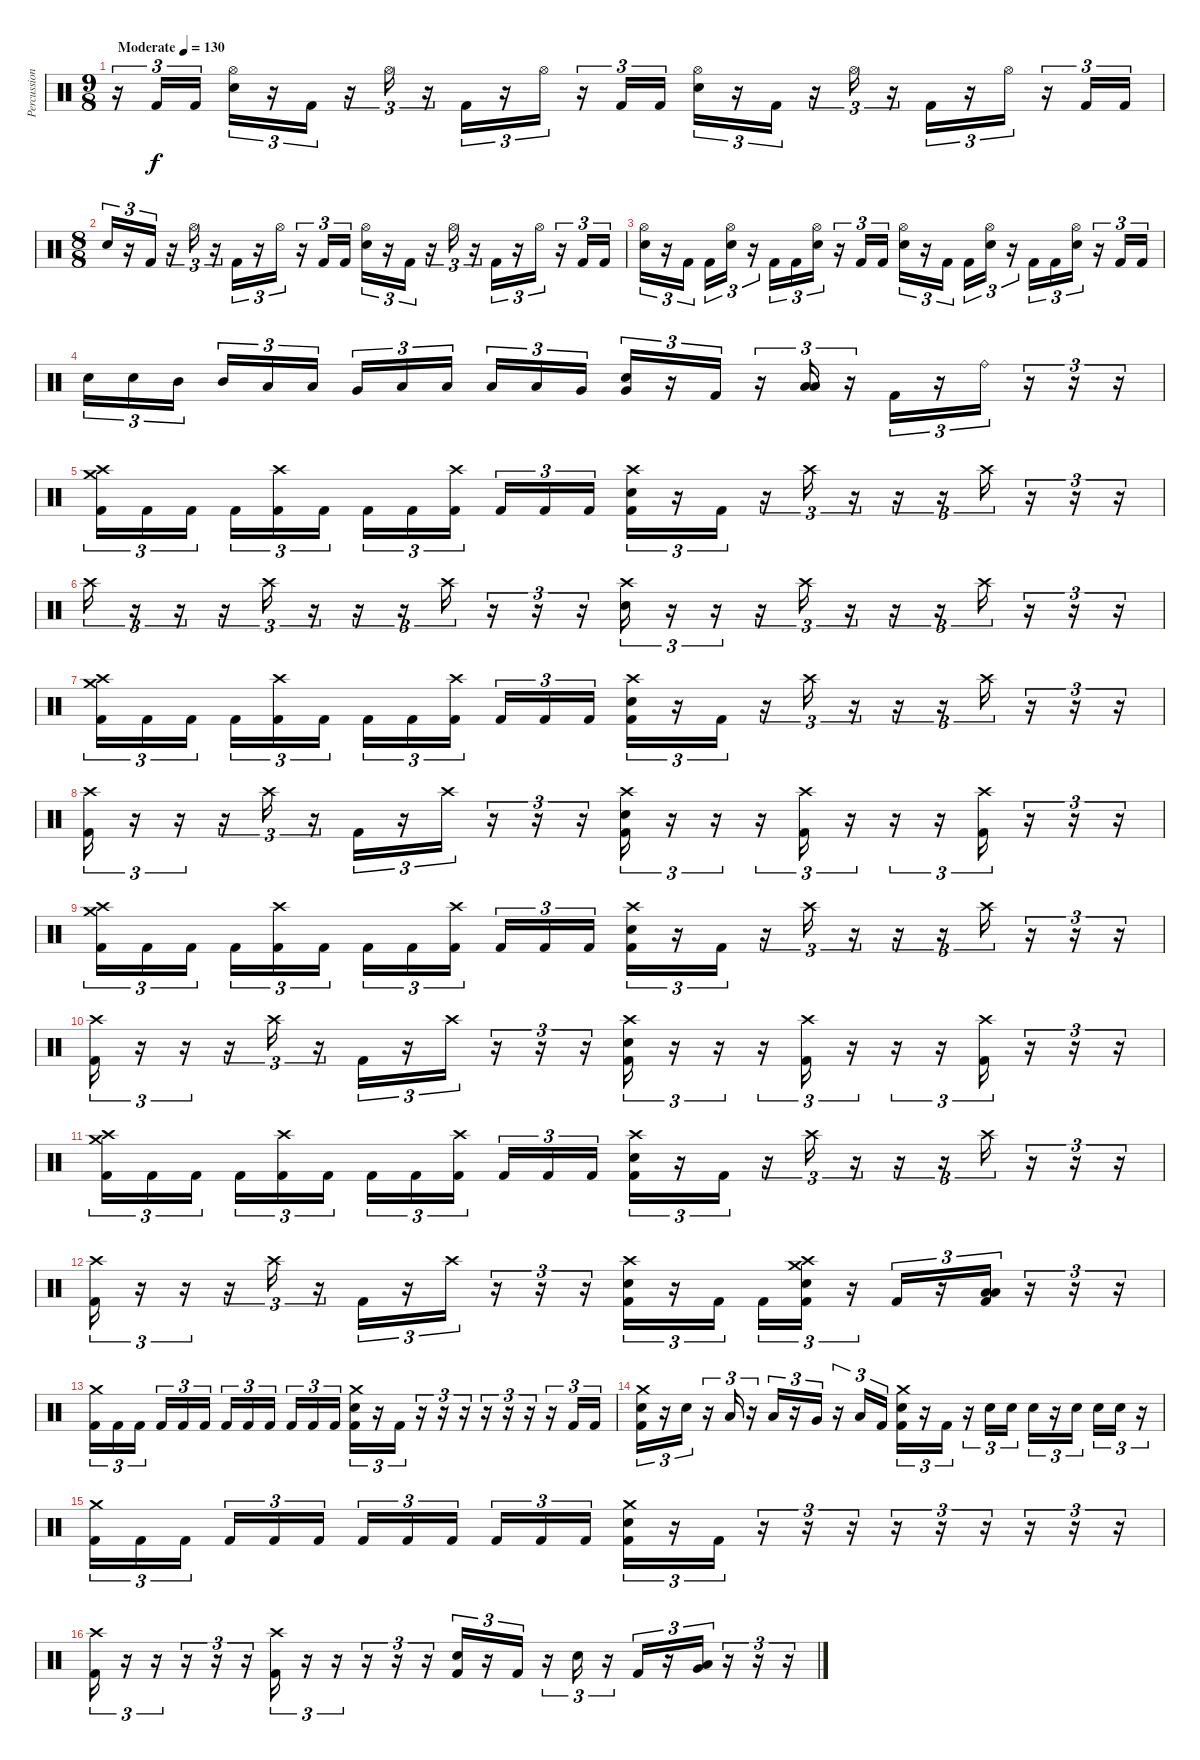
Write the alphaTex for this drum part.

\track ("Percussion" "Percussion") {instrument percussion}
\staff {score}
\articulation defaults
\ts (9 8)
\tempo (130 "Moderate")
\clef neutral
\ks c
r.16{tu (3 2) dy f} "Kick (hit) 2".16{tu (3 2)} "Kick (hit) 2".16{tu (3 2) beam splitsecondary} ("Hi-Hat (open)" "Snare (hit) 2").16{tu (3 2)} r.16{tu (3 2)} "Kick (hit) 2".16{tu (3 2)} r.16{tu (3 2)} "Hi-Hat (open)".16{tu (3 2)} r.16{tu (3 2)} "Kick (hit) 2".16{tu (3 2)} r.16{tu (3 2)} "Hi-Hat (open)".16{tu (3 2)} r.16{tu (3 2)} "Kick (hit) 2".16{tu (3 2)} "Kick (hit) 2".16{tu (3 2) beam splitsecondary} ("Hi-Hat (open)" "Snare (hit) 2").16{tu (3 2)} r.16{tu (3 2)} "Kick (hit) 2".16{tu (3 2)} r.16{tu (3 2)} "Hi-Hat (open)".16{tu (3 2)} r.16{tu (3 2)} "Kick (hit) 2".16{tu (3 2)} r.16{tu (3 2)} "Hi-Hat (open)".16{tu (3 2)} r.16{tu (3 2)} "Kick (hit) 2".16{tu (3 2)} "Kick (hit) 2".16{tu (3 2)} |
\ts (8 8)
"Snare (hit) 2".16{tu (3 2)} r.16{tu (3 2)} "Kick (hit) 2".16{tu (3 2)} r.16{tu (3 2)} "Hi-Hat (open)".16{tu (3 2)} r.16{tu (3 2)} "Kick (hit) 2".16{tu (3 2)} r.16{tu (3 2)} "Hi-Hat (open)".16{tu (3 2)} r.16{tu (3 2)} "Kick (hit) 2".16{tu (3 2)} "Kick (hit) 2".16{tu (3 2)} ("Hi-Hat (open)" "Snare (hit) 2").16{tu (3 2)} r.16{tu (3 2)} "Kick (hit) 2".16{tu (3 2)} r.16{tu (3 2)} "Hi-Hat (open)".16{tu (3 2)} r.16{tu (3 2)} "Kick (hit) 2".16{tu (3 2)} r.16{tu (3 2)} "Hi-Hat (open)".16{tu (3 2)} r.16{tu (3 2)} "Kick (hit) 2".16{tu (3 2)} "Kick (hit) 2".16{tu (3 2)} |
("Hi-Hat (open)" "Snare (hit) 2").16{tu (3 2)} r.16{tu (3 2)} "Kick (hit) 2".16{tu (3 2)} "Kick (hit) 2".16{tu (3 2)} ("Hi-Hat (open)" "Snare (hit) 2").16{tu (3 2)} r.16{tu (3 2)} "Kick (hit) 2".16{tu (3 2)} "Kick (hit) 2".16{tu (3 2)} ("Hi-Hat (open)" "Snare (hit) 2").16{tu (3 2)} r.16{tu (3 2)} "Kick (hit) 2".16{tu (3 2)} "Kick (hit) 2".16{tu (3 2)} ("Hi-Hat (open)" "Snare (hit) 2").16{tu (3 2)} r.16{tu (3 2)} "Kick (hit) 2".16{tu (3 2)} "Kick (hit) 2".16{tu (3 2)} ("Hi-Hat (open)" "Snare (hit) 2").16{tu (3 2)} r.16{tu (3 2)} "Kick (hit) 2".16{tu (3 2)} "Kick (hit) 2".16{tu (3 2)} ("Hi-Hat (open)" "Snare (hit) 2").16{tu (3 2)} r.16{tu (3 2)} "Kick (hit) 2".16{tu (3 2)} "Kick (hit) 2".16{tu (3 2)} |
"Snare (hit) 2".16{tu (3 2)} "Snare (hit) 2".16{tu (3 2)} "Mid Tom (hit)".16{tu (3 2)} "Mid Tom (hit)".16{tu (3 2)} "Low Tom (hit)".16{tu (3 2)} "Low Tom (hit)".16{tu (3 2)} "Very Low Tom (hit)".16{tu (3 2)} "Low Floor Tom (hit)".16{tu (3 2)} "Low Floor Tom (hit)".16{tu (3 2)} "Low Tom (hit)".16{tu (3 2)} "Low Tom (hit)".16{tu (3 2)} "Very Low Tom (hit)".16{tu (3 2)} ("Snare (hit) 2" "Very Low Tom (hit)").16{tu (3 2)} r.16{tu (3 2)} "Kick (hit) 2".16{tu (3 2)} r.16{tu (3 2)} ("Low Tom (hit)" "Low Floor Tom (hit)").16{tu (3 2)} r.16{tu (3 2)} "Kick (hit) 2".16{tu (3 2)} r.16{tu (3 2)} "Ride (bell)".16{tu (3 2)} r.16{tu (3 2)} r.16{tu (3 2)} r.16{tu (3 2)} |
("Crash high (hit)" "Crash medium (hit)" "Kick (hit) 2").16{tu (3 2)} "Kick (hit) 2".16{tu (3 2)} "Kick (hit) 2".16{tu (3 2)} "Kick (hit) 2".16{tu (3 2)} ("Crash high (hit)" "Kick (hit) 2").16{tu (3 2)} "Kick (hit) 2".16{tu (3 2)} "Kick (hit) 2".16{tu (3 2)} "Kick (hit) 2".16{tu (3 2)} ("Crash high (hit)" "Kick (hit) 2").16{tu (3 2)} "Kick (hit) 2".16{tu (3 2)} "Kick (hit) 2".16{tu (3 2)} "Kick (hit) 2".16{tu (3 2)} ("Crash high (hit)" "Snare (hit) 2" "Kick (hit) 2").16{tu (3 2)} r.16{tu (3 2)} "Kick (hit) 2".16{tu (3 2)} r.16{tu (3 2)} "Crash high (hit)".16{tu (3 2)} r.16{tu (3 2)} r.16{tu (3 2)} r.16{tu (3 2)} "Crash high (hit)".16{tu (3 2)} r.16{tu (3 2)} r.16{tu (3 2)} r.16{tu (3 2)} |
"Crash high (hit)".16{tu (3 2)} r.16{tu (3 2)} r.16{tu (3 2)} r.16{tu (3 2)} "Crash high (hit)".16{tu (3 2)} r.16{tu (3 2)} r.16{tu (3 2)} r.16{tu (3 2)} "Crash high (hit)".16{tu (3 2)} r.16{tu (3 2)} r.16{tu (3 2)} r.16{tu (3 2)} ("Crash high (hit)" "Snare (hit) 2").16{tu (3 2)} r.16{tu (3 2)} r.16{tu (3 2)} r.16{tu (3 2)} "Crash high (hit)".16{tu (3 2)} r.16{tu (3 2)} r.16{tu (3 2)} r.16{tu (3 2)} "Crash high (hit)".16{tu (3 2)} r.16{tu (3 2)} r.16{tu (3 2)} r.16{tu (3 2)} |
("Crash high (hit)" "Crash medium (hit)" "Kick (hit) 2").16{tu (3 2)} "Kick (hit) 2".16{tu (3 2)} "Kick (hit) 2".16{tu (3 2)} "Kick (hit) 2".16{tu (3 2)} ("Crash high (hit)" "Kick (hit) 2").16{tu (3 2)} "Kick (hit) 2".16{tu (3 2)} "Kick (hit) 2".16{tu (3 2)} "Kick (hit) 2".16{tu (3 2)} ("Crash high (hit)" "Kick (hit) 2").16{tu (3 2)} "Kick (hit) 2".16{tu (3 2)} "Kick (hit) 2".16{tu (3 2)} "Kick (hit) 2".16{tu (3 2)} ("Crash high (hit)" "Snare (hit) 2" "Kick (hit) 2").16{tu (3 2)} r.16{tu (3 2)} "Kick (hit) 2".16{tu (3 2)} r.16{tu (3 2)} "Crash high (hit)".16{tu (3 2)} r.16{tu (3 2)} r.16{tu (3 2)} r.16{tu (3 2)} "Crash high (hit)".16{tu (3 2)} r.16{tu (3 2)} r.16{tu (3 2)} r.16{tu (3 2)} |
("Crash high (hit)" "Kick (hit) 2").16{tu (3 2)} r.16{tu (3 2)} r.16{tu (3 2)} r.16{tu (3 2)} "Crash high (hit)".16{tu (3 2)} r.16{tu (3 2)} "Kick (hit) 2".16{tu (3 2)} r.16{tu (3 2)} "Crash high (hit)".16{tu (3 2)} r.16{tu (3 2)} r.16{tu (3 2)} r.16{tu (3 2)} ("Crash high (hit)" "Snare (hit) 2" "Kick (hit) 2").16{tu (3 2)} r.16{tu (3 2)} r.16{tu (3 2)} r.16{tu (3 2)} ("Crash high (hit)" "Kick (hit) 2").16{tu (3 2)} r.16{tu (3 2)} r.16{tu (3 2)} r.16{tu (3 2)} ("Crash high (hit)" "Kick (hit) 2").16{tu (3 2)} r.16{tu (3 2)} r.16{tu (3 2)} r.16{tu (3 2)} |
("Crash high (hit)" "Crash medium (hit)" "Kick (hit) 2").16{tu (3 2)} "Kick (hit) 2".16{tu (3 2)} "Kick (hit) 2".16{tu (3 2)} "Kick (hit) 2".16{tu (3 2)} ("Crash high (hit)" "Kick (hit) 2").16{tu (3 2)} "Kick (hit) 2".16{tu (3 2)} "Kick (hit) 2".16{tu (3 2)} "Kick (hit) 2".16{tu (3 2)} ("Crash high (hit)" "Kick (hit) 2").16{tu (3 2)} "Kick (hit) 2".16{tu (3 2)} "Kick (hit) 2".16{tu (3 2)} "Kick (hit) 2".16{tu (3 2)} ("Crash high (hit)" "Snare (hit) 2" "Kick (hit) 2").16{tu (3 2)} r.16{tu (3 2)} "Kick (hit) 2".16{tu (3 2)} r.16{tu (3 2)} "Crash high (hit)".16{tu (3 2)} r.16{tu (3 2)} r.16{tu (3 2)} r.16{tu (3 2)} "Crash high (hit)".16{tu (3 2)} r.16{tu (3 2)} r.16{tu (3 2)} r.16{tu (3 2)} |
("Crash high (hit)" "Kick (hit) 2").16{tu (3 2)} r.16{tu (3 2)} r.16{tu (3 2)} r.16{tu (3 2)} "Crash high (hit)".16{tu (3 2)} r.16{tu (3 2)} "Kick (hit) 2".16{tu (3 2)} r.16{tu (3 2)} "Crash high (hit)".16{tu (3 2)} r.16{tu (3 2)} r.16{tu (3 2)} r.16{tu (3 2)} ("Crash high (hit)" "Snare (hit) 2" "Kick (hit) 2").16{tu (3 2)} r.16{tu (3 2)} r.16{tu (3 2)} r.16{tu (3 2)} ("Crash high (hit)" "Kick (hit) 2").16{tu (3 2)} r.16{tu (3 2)} r.16{tu (3 2)} r.16{tu (3 2)} ("Crash high (hit)" "Kick (hit) 2").16{tu (3 2)} r.16{tu (3 2)} r.16{tu (3 2)} r.16{tu (3 2)} |
("Crash high (hit)" "Crash medium (hit)" "Kick (hit) 2").16{tu (3 2)} "Kick (hit) 2".16{tu (3 2)} "Kick (hit) 2".16{tu (3 2)} "Kick (hit) 2".16{tu (3 2)} ("Crash high (hit)" "Kick (hit) 2").16{tu (3 2)} "Kick (hit) 2".16{tu (3 2)} "Kick (hit) 2".16{tu (3 2)} "Kick (hit) 2".16{tu (3 2)} ("Crash high (hit)" "Kick (hit) 2").16{tu (3 2)} "Kick (hit) 2".16{tu (3 2)} "Kick (hit) 2".16{tu (3 2)} "Kick (hit) 2".16{tu (3 2)} ("Crash high (hit)" "Snare (hit) 2" "Kick (hit) 2").16{tu (3 2)} r.16{tu (3 2)} "Kick (hit) 2".16{tu (3 2)} r.16{tu (3 2)} "Crash high (hit)".16{tu (3 2)} r.16{tu (3 2)} r.16{tu (3 2)} r.16{tu (3 2)} "Crash high (hit)".16{tu (3 2)} r.16{tu (3 2)} r.16{tu (3 2)} r.16{tu (3 2)} |
("Crash high (hit)" "Kick (hit) 2").16{tu (3 2)} r.16{tu (3 2)} r.16{tu (3 2)} r.16{tu (3 2)} "Crash high (hit)".16{tu (3 2)} r.16{tu (3 2)} "Kick (hit) 2".16{tu (3 2)} r.16{tu (3 2)} "Crash high (hit)".16{tu (3 2)} r.16{tu (3 2)} r.16{tu (3 2)} r.16{tu (3 2)} ("Crash high (hit)" "Snare (hit) 2" "Kick (hit) 2").16{tu (3 2)} r.16{tu (3 2)} "Kick (hit) 2".16{tu (3 2)} "Kick (hit) 2".16{tu (3 2)} ("Crash high (hit)" "Crash medium (hit)" "Snare (hit) 2" "Kick (hit) 2").16{tu (3 2)} r.16{tu (3 2)} "Kick (hit) 2".16{tu (3 2)} r.16{tu (3 2)} ("Low Floor Tom (hit)" "Low Floor Tom (hit)" "Kick (hit) 2").16{tu (3 2)} r.16{tu (3 2)} r.16{tu (3 2)} r.16{tu (3 2)} |
("Crash medium (hit)" "Kick (hit) 2").16{tu (3 2)} "Kick (hit) 2".16{tu (3 2)} "Kick (hit) 2".16{tu (3 2)} "Kick (hit) 2".16{tu (3 2)} "Kick (hit) 2".16{tu (3 2)} "Kick (hit) 2".16{tu (3 2)} "Kick (hit) 2".16{tu (3 2)} "Kick (hit) 2".16{tu (3 2)} "Kick (hit) 2".16{tu (3 2)} "Kick (hit) 2".16{tu (3 2)} "Kick (hit) 2".16{tu (3 2)} "Kick (hit) 2".16{tu (3 2)} ("Crash medium (hit)" "Snare (hit) 2" "Kick (hit) 2").16{tu (3 2)} r.16{tu (3 2)} "Kick (hit) 2".16{tu (3 2)} r.16{tu (3 2)} r.16{tu (3 2)} r.16{tu (3 2)} r.16{tu (3 2)} r.16{tu (3 2)} r.16{tu (3 2)} r.16{tu (3 2)} "Kick (hit) 2".16{tu (3 2)} "Kick (hit) 2".16{tu (3 2)} |
("Crash medium (hit)" "Snare (hit) 2" "Kick (hit) 2").16{tu (3 2)} r.16{tu (3 2)} "Snare (hit) 2".16{tu (3 2)} r.16{tu (3 2)} "Low Tom (hit)".16{tu (3 2)} r.16{tu (3 2)} "Low Tom (hit)".16{tu (3 2)} r.16{tu (3 2)} "Very Low Tom (hit)".16{tu (3 2)} r.16{tu (3 2)} "Low Floor Tom (hit)".16{tu (3 2)} "Kick (hit) 2".16{tu (3 2)} ("Crash medium (hit)" "Snare (hit) 2" "Kick (hit) 2").16{tu (3 2)} r.16{tu (3 2)} "Kick (hit) 2".16{tu (3 2)} r.16{tu (3 2)} "Snare (hit) 2".16{tu (3 2)} "Snare (hit) 2".16{tu (3 2)} "Snare (hit) 2".16{tu (3 2)} r.16{tu (3 2)} "Snare (hit) 2".16{tu (3 2)} "Snare (hit) 2".16{tu (3 2)} "Snare (hit) 2".16{tu (3 2)} r.16{tu (3 2)} |
("Crash medium (hit)" "Kick (hit) 2").16{tu (3 2)} "Kick (hit) 2".16{tu (3 2)} "Kick (hit) 2".16{tu (3 2)} "Kick (hit) 2".16{tu (3 2)} "Kick (hit) 2".16{tu (3 2)} "Kick (hit) 2".16{tu (3 2)} "Kick (hit) 2".16{tu (3 2)} "Kick (hit) 2".16{tu (3 2)} "Kick (hit) 2".16{tu (3 2)} "Kick (hit) 2".16{tu (3 2)} "Kick (hit) 2".16{tu (3 2)} "Kick (hit) 2".16{tu (3 2)} ("Crash medium (hit)" "Snare (hit) 2" "Kick (hit) 2").16{tu (3 2)} r.16{tu (3 2)} "Kick (hit) 2".16{tu (3 2)} r.16{tu (3 2)} r.16{tu (3 2)} r.16{tu (3 2)} r.16{tu (3 2)} r.16{tu (3 2)} r.16{tu (3 2)} r.16{tu (3 2)} r.16{tu (3 2)} r.16{tu (3 2)} |
("Crash high (hit)" "Kick (hit) 2").16{tu (3 2)} r.16{tu (3 2)} r.16{tu (3 2)} r.16{tu (3 2)} r.16{tu (3 2)} r.16{tu (3 2)} ("Crash high (hit)" "Kick (hit) 2").16{tu (3 2)} r.16{tu (3 2)} r.16{tu (3 2)} r.16{tu (3 2)} r.16{tu (3 2)} r.16{tu (3 2)} ("Snare (hit) 2" "Kick (hit) 2").16{tu (3 2)} r.16{tu (3 2)} "Kick (hit) 2".16{tu (3 2)} r.16{tu (3 2)} "Snare (hit) 2".16{tu (3 2)} r.16{tu (3 2)} "Kick (hit) 2".16{tu (3 2)} r.16{tu (3 2)} ("Very Low Tom (hit)" "Low Floor Tom (hit)").16{tu (3 2)} r.16{tu (3 2)} r.16{tu (3 2)} r.16{tu (3 2)}
